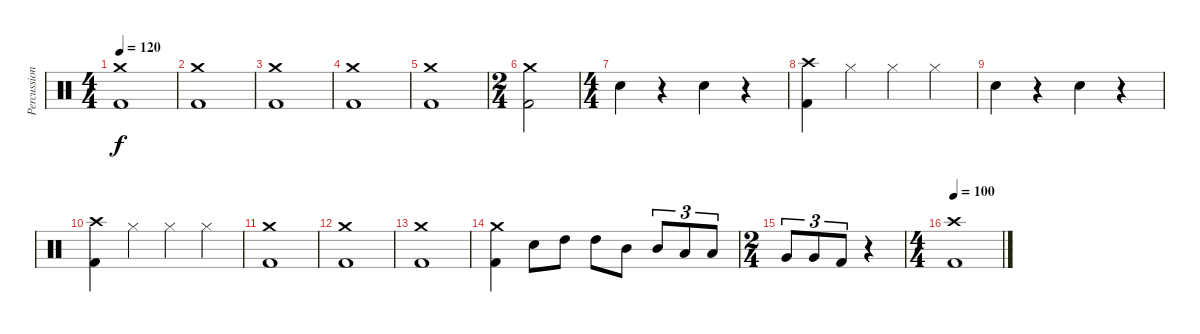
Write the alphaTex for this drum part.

\track ("Percussions" "Percussion") {instrument percussion}
\staff {score}
\articulation defaults
\ts (4 4)
\tempo 120
\clef neutral
\ks c
("Crash medium (hit)" "Kick (hit) 2").1{dy f} |
("Crash medium (hit)" "Kick (hit) 2").1 |
("Crash medium (hit)" "Kick (hit) 2").1 |
("Crash medium (hit)" "Kick (hit) 2").1 |
("Crash medium (hit)" "Kick (hit) 2").1 |
\ts (2 4)
("Crash medium (hit)" "Kick (hit) 2").2 |
\ts (4 4)
"Electric Snare (hit)".4 r.4 "Electric Snare (hit)".4 r.4 |
("Crash high (hit)" "Kick (hit) 2").4 "Hi-Hat (closed)".4 "Hi-Hat (closed)".4 "Hi-Hat (closed)".4 |
"Electric Snare (hit)".4 r.4 "Electric Snare (hit)".4 r.4 |
("Crash high (hit)" "Kick (hit) 2").4 "Hi-Hat (closed)".4 "Hi-Hat (closed)".4 "Hi-Hat (closed)".4 |
("Crash medium (hit)" "Kick (hit) 2").1 |
("Crash medium (hit)" "Kick (hit) 2").1 |
("Crash medium (hit)" "Kick (hit) 2").1 |
("Crash medium (hit)" "Kick (hit) 2").4 "Electric Snare (hit)".8 "High Tom (hit)".8 "High Tom (hit)".8 "Mid Tom (hit)".8 "Mid Tom (hit)".8{tu (3 2)} "Low Tom (hit)".8{tu (3 2)} "Low Tom (hit)".8{tu (3 2)} |
\ts (2 4)
"Very Low Tom (hit)".8{tu (3 2)} "Very Low Tom (hit)".8{tu (3 2)} "Kick (hit) 2".8{tu (3 2)} r.4 |
\ts (4 4)
\tempo 100
("Crash high (hit)" "Kick (hit) 2").1
